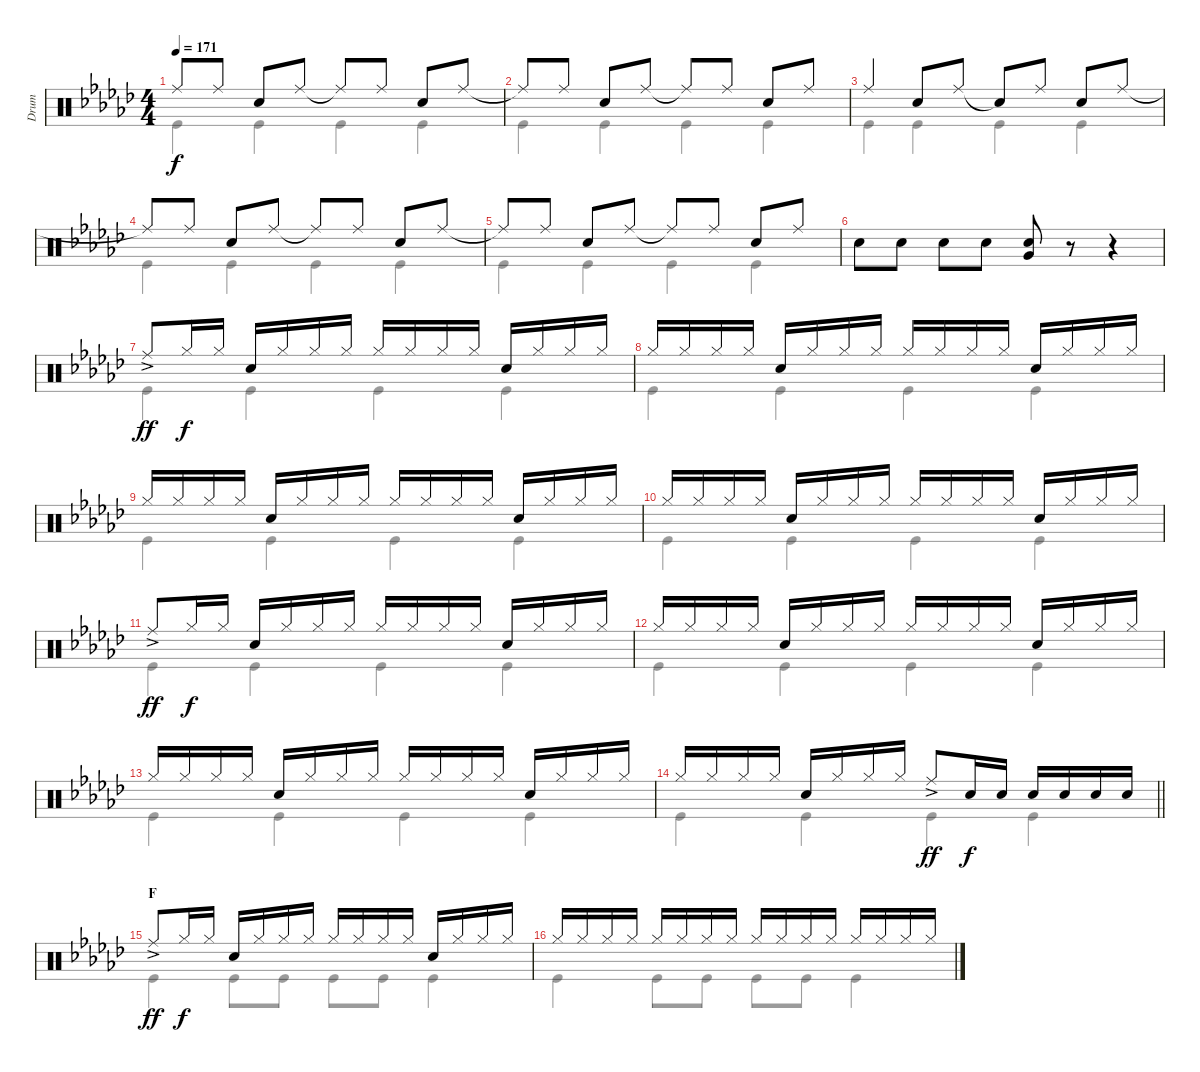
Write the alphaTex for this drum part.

\track ("Drum" "Drum") {instrument percussion}
\staff {score}
\articulation defaults
\voice
\ts (4 4)
\tempo 171
\clef neutral
\ks gb "Ride (middle)"{t}.8{dy f} "Ride (middle)".8 "Snare (hit) 2".8 "Ride (middle)".8 "Ride (middle)"{t}.8 "Ride (middle)".8 "Snare (hit) 2".8 "Ride (middle)".8
|
"Ride (middle)"{t}.8 "Ride (middle)".8 "Snare (hit) 2".8 "Ride (middle)".8 "Ride (middle)"{t}.8 "Ride (middle)".8 "Snare (hit) 2".8 "Ride (middle)".8 |
"Ride (middle)".4 "Snare (hit) 2".8 "Ride (middle)".8 "Snare (hit)"{t}.8 "Ride (middle)".8 "Snare (hit) 2".8 "Ride (middle)".8 |
"Ride (middle)"{t}.8 "Ride (middle)".8 "Snare (hit) 2".8 "Ride (middle)".8 "Ride (middle)"{t}.8 "Ride (middle)".8 "Snare (hit) 2".8 "Ride (middle)".8 |
"Ride (middle)"{t}.8 "Ride (middle)".8 "Snare (hit) 2".8 "Ride (middle)".8 "Ride (middle)"{t}.8 "Ride (middle)".8 "Snare (hit) 2".8 "Ride (middle)".8 |
"Snare (hit) 2".8 "Snare (hit) 2".8 "Snare (hit) 2".8 "Snare (hit) 2".8 ("Snare (hit) 2" "Very Low Tom (hit)").8 r.8 r.4 |
"Ride (middle)"{ac}.8{dy ff} "Hi-Hat (closed)".16{dy f} "Hi-Hat (closed)".16 "Snare (hit) 2".16 "Hi-Hat (closed)".16 "Hi-Hat (closed)".16 "Hi-Hat (closed)".16 "Hi-Hat (closed)".16 "Hi-Hat (closed)".16 "Hi-Hat (closed)".16 "Hi-Hat (closed)".16 "Snare (hit) 2".16 "Hi-Hat (closed)".16 "Hi-Hat (closed)".16 "Hi-Hat (closed)".16 |
"Hi-Hat (closed)".16 "Hi-Hat (closed)".16 "Hi-Hat (closed)".16 "Hi-Hat (closed)".16 "Snare (hit) 2".16 "Hi-Hat (closed)".16 "Hi-Hat (closed)".16 "Hi-Hat (closed)".16 "Hi-Hat (closed)".16 "Hi-Hat (closed)".16 "Hi-Hat (closed)".16 "Hi-Hat (closed)".16 "Snare (hit) 2".16 "Hi-Hat (closed)".16 "Hi-Hat (closed)".16 "Hi-Hat (closed)".16 |
"Hi-Hat (closed)".16 "Hi-Hat (closed)".16 "Hi-Hat (closed)".16 "Hi-Hat (closed)".16 "Snare (hit) 2".16 "Hi-Hat (closed)".16 "Hi-Hat (closed)".16 "Hi-Hat (closed)".16 "Hi-Hat (closed)".16 "Hi-Hat (closed)".16 "Hi-Hat (closed)".16 "Hi-Hat (closed)".16 "Snare (hit) 2".16 "Hi-Hat (closed)".16 "Hi-Hat (closed)".16 "Hi-Hat (closed)".16 |
"Hi-Hat (closed)".16 "Hi-Hat (closed)".16 "Hi-Hat (closed)".16 "Hi-Hat (closed)".16 "Snare (hit) 2".16 "Hi-Hat (closed)".16 "Hi-Hat (closed)".16 "Hi-Hat (closed)".16 "Hi-Hat (closed)".16 "Hi-Hat (closed)".16 "Hi-Hat (closed)".16 "Hi-Hat (closed)".16 "Snare (hit) 2".16 "Hi-Hat (closed)".16 "Hi-Hat (closed)".16 "Hi-Hat (closed)".16 |
"Ride (middle)"{ac}.8{dy ff} "Hi-Hat (closed)".16{dy f} "Hi-Hat (closed)".16 "Snare (hit) 2".16 "Hi-Hat (closed)".16 "Hi-Hat (closed)".16 "Hi-Hat (closed)".16 "Hi-Hat (closed)".16 "Hi-Hat (closed)".16 "Hi-Hat (closed)".16 "Hi-Hat (closed)".16 "Snare (hit) 2".16 "Hi-Hat (closed)".16 "Hi-Hat (closed)".16 "Hi-Hat (closed)".16 |
"Hi-Hat (closed)".16 "Hi-Hat (closed)".16 "Hi-Hat (closed)".16 "Hi-Hat (closed)".16 "Snare (hit) 2".16 "Hi-Hat (closed)".16 "Hi-Hat (closed)".16 "Hi-Hat (closed)".16 "Hi-Hat (closed)".16 "Hi-Hat (closed)".16 "Hi-Hat (closed)".16 "Hi-Hat (closed)".16 "Snare (hit) 2".16 "Hi-Hat (closed)".16 "Hi-Hat (closed)".16 "Hi-Hat (closed)".16 |
"Hi-Hat (closed)".16 "Hi-Hat (closed)".16 "Hi-Hat (closed)".16 "Hi-Hat (closed)".16 "Snare (hit) 2".16 "Hi-Hat (closed)".16 "Hi-Hat (closed)".16 "Hi-Hat (closed)".16 "Hi-Hat (closed)".16 "Hi-Hat (closed)".16 "Hi-Hat (closed)".16 "Hi-Hat (closed)".16 "Snare (hit) 2".16 "Hi-Hat (closed)".16 "Hi-Hat (closed)".16 "Hi-Hat (closed)".16 |
\barLineRight lightlight "Hi-Hat (closed)".16 "Hi-Hat (closed)".16 "Hi-Hat (closed)".16 "Hi-Hat (closed)".16 "Snare (hit) 2".16 "Hi-Hat (closed)".16 "Hi-Hat (closed)".16 "Hi-Hat (closed)".16 "Ride (middle)"{ac}.8{dy ff} "Snare (hit) 2".16{dy f} "Snare (hit) 2".16 "Snare (hit) 2".16 "Snare (hit) 2".16 "Snare (hit) 2".16 "Snare (hit) 2".16
|
\section ("" "F")
"Ride (middle)"{ac}.8{dy ff} "Hi-Hat (closed)".16{dy f} "Hi-Hat (closed)".16 "Snare (hit) 2".16 "Hi-Hat (closed)".16 "Hi-Hat (closed)".16 "Hi-Hat (closed)".16 "Hi-Hat (closed)".16 "Hi-Hat (closed)".16 "Hi-Hat (closed)".16 "Hi-Hat (closed)".16 "Snare (hit) 2".16 "Hi-Hat (closed)".16 "Hi-Hat (closed)".16 "Hi-Hat (closed)".16 |
"Hi-Hat (closed)".16 "Hi-Hat (closed)".16 "Hi-Hat (closed)".16 "Hi-Hat (closed)".16 "Hi-Hat (closed)".16 "Hi-Hat (closed)".16 "Hi-Hat (closed)".16 "Hi-Hat (closed)".16 "Hi-Hat (closed)".16 "Hi-Hat (closed)".16 "Hi-Hat (closed)".16 "Hi-Hat (closed)".16 "Hi-Hat (closed)".16 "Hi-Hat (closed)".16 "Hi-Hat (closed)".16 "Hi-Hat (closed)".16
\voice
\clef neutral
\ottava regular
\simile none
\ks gb "Kick (hit)".4{dy f} "Kick (hit)".4 "Kick (hit)".4 "Kick (hit)".4
|
"Kick (hit)".4 "Kick (hit)".4 "Kick (hit)".4 "Kick (hit)".4 |
"Kick (hit)".4 "Kick (hit)".4 "Kick (hit)".4 "Kick (hit)".4 |
"Kick (hit)".4 "Kick (hit)".4 "Kick (hit)".4 "Kick (hit)".4 |
"Kick (hit)".4 "Kick (hit)".4 "Kick (hit)".4 "Kick (hit)".4 |
|
"Kick (hit)".4 "Kick (hit)".4 "Kick (hit)".4 "Kick (hit)".4 |
"Kick (hit)".4 "Kick (hit)".4 "Kick (hit)".4 "Kick (hit)".4 |
"Kick (hit)".4 "Kick (hit)".4 "Kick (hit)".4 "Kick (hit)".4 |
"Kick (hit)".4 "Kick (hit)".4 "Kick (hit)".4 "Kick (hit)".4 |
"Kick (hit)".4 "Kick (hit)".4 "Kick (hit)".4 "Kick (hit)".4 |
"Kick (hit)".4 "Kick (hit)".4 "Kick (hit)".4 "Kick (hit)".4 |
"Kick (hit)".4 "Kick (hit)".4 "Kick (hit)".4 "Kick (hit)".4 |
\barLineRight lightlight "Kick (hit)".4 "Kick (hit)".4 "Kick (hit)".4 "Kick (hit)".4
|
"Kick (hit)".4 "Kick (hit)".8 "Kick (hit)".8 "Kick (hit)".8 "Kick (hit)".8 "Kick (hit)".4 |
"Kick (hit)".4 "Kick (hit)".8 "Kick (hit)".8 "Kick (hit)".8 "Kick (hit)".8 "Kick (hit)".4
